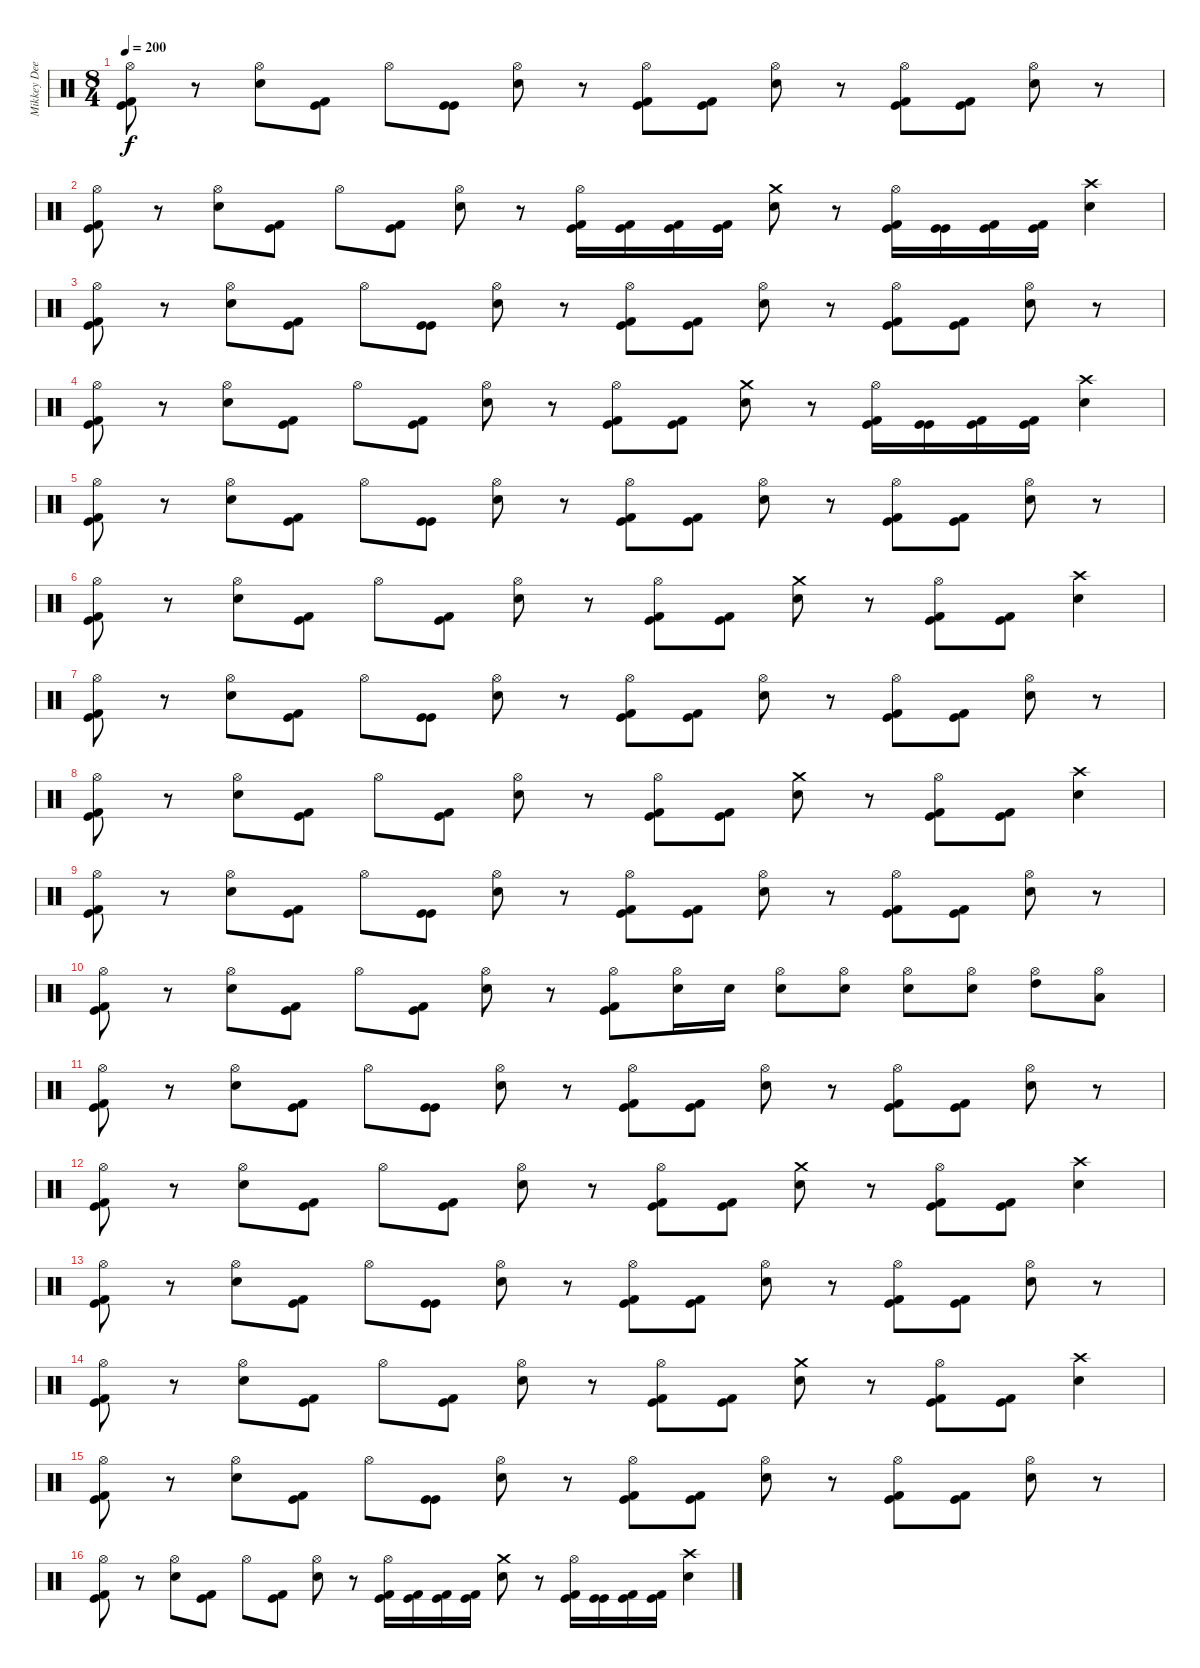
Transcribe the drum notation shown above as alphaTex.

\track ("Mikkey Dee" "Mikkey Dee") {instrument percussion}
\staff {score}
\articulation defaults
\ts (8 4)
\tempo 200
\clef neutral
\ks c
("Hi-Hat (open)" "Kick (hit)" "Kick (hit) 2").8{dy f} r.8 ("Hi-Hat (open)" "Electric Snare (hit)").8 ("Kick (hit)" "Kick (hit) 2").8 "Hi-Hat (open)".8 ("Kick (hit)" "Kick (hit)").8 ("Hi-Hat (open)" "Electric Snare (hit)").8 r.8 ("Hi-Hat (open)" "Kick (hit)" "Kick (hit) 2").8 ("Kick (hit)" "Kick (hit) 2").8 ("Hi-Hat (open)" "Electric Snare (hit)").8 r.8 ("Hi-Hat (open)" "Kick (hit)" "Kick (hit) 2").8 ("Kick (hit)" "Kick (hit) 2").8 ("Hi-Hat (open)" "Electric Snare (hit)").8 r.8 |
("Hi-Hat (open)" "Kick (hit)" "Kick (hit) 2").8 r.8 ("Hi-Hat (open)" "Electric Snare (hit)").8 ("Kick (hit)" "Kick (hit) 2").8 "Hi-Hat (open)".8 ("Kick (hit)" "Kick (hit) 2").8 ("Hi-Hat (open)" "Electric Snare (hit)").8 r.8 ("Hi-Hat (open)" "Kick (hit)" "Kick (hit) 2").16 ("Kick (hit)" "Kick (hit) 2").16 ("Kick (hit)" "Kick (hit) 2").16 ("Kick (hit)" "Kick (hit) 2").16 ("Crash medium (hit)" "Electric Snare (hit)").8 r.8 ("Hi-Hat (open)" "Kick (hit)" "Kick (hit) 2").16 ("Kick (hit)" "Kick (hit)").16 ("Kick (hit)" "Kick (hit) 2").16 ("Kick (hit)" "Kick (hit) 2").16 ("Crash high (hit)" "Electric Snare (hit)").4 |
("Hi-Hat (open)" "Kick (hit)" "Kick (hit) 2").8 r.8 ("Hi-Hat (open)" "Electric Snare (hit)").8 ("Kick (hit)" "Kick (hit) 2").8 "Hi-Hat (open)".8 ("Kick (hit)" "Kick (hit)").8 ("Hi-Hat (open)" "Electric Snare (hit)").8 r.8 ("Hi-Hat (open)" "Kick (hit)" "Kick (hit) 2").8 ("Kick (hit)" "Kick (hit) 2").8 ("Hi-Hat (open)" "Electric Snare (hit)").8 r.8 ("Hi-Hat (open)" "Kick (hit)" "Kick (hit) 2").8 ("Kick (hit)" "Kick (hit) 2").8 ("Hi-Hat (open)" "Electric Snare (hit)").8 r.8 |
("Hi-Hat (open)" "Kick (hit)" "Kick (hit) 2").8 r.8 ("Hi-Hat (open)" "Electric Snare (hit)").8 ("Kick (hit)" "Kick (hit) 2").8 "Hi-Hat (open)".8 ("Kick (hit)" "Kick (hit) 2").8 ("Hi-Hat (open)" "Electric Snare (hit)").8 r.8 ("Hi-Hat (open)" "Kick (hit)" "Kick (hit) 2").8 ("Kick (hit)" "Kick (hit) 2").8 ("Crash medium (hit)" "Electric Snare (hit)").8 r.8 ("Hi-Hat (open)" "Kick (hit)" "Kick (hit) 2").16 ("Kick (hit)" "Kick (hit)").16 ("Kick (hit)" "Kick (hit) 2").16 ("Kick (hit)" "Kick (hit) 2").16 ("Crash high (hit)" "Electric Snare (hit)").4 |
("Hi-Hat (open)" "Kick (hit)" "Kick (hit) 2").8 r.8 ("Hi-Hat (open)" "Electric Snare (hit)").8 ("Kick (hit)" "Kick (hit) 2").8 "Hi-Hat (open)".8 ("Kick (hit)" "Kick (hit)").8 ("Hi-Hat (open)" "Electric Snare (hit)").8 r.8 ("Hi-Hat (open)" "Kick (hit)" "Kick (hit) 2").8 ("Kick (hit)" "Kick (hit) 2").8 ("Hi-Hat (open)" "Electric Snare (hit)").8 r.8 ("Hi-Hat (open)" "Kick (hit)" "Kick (hit) 2").8 ("Kick (hit)" "Kick (hit) 2").8 ("Hi-Hat (open)" "Electric Snare (hit)").8 r.8 |
("Hi-Hat (open)" "Kick (hit)" "Kick (hit) 2").8 r.8 ("Hi-Hat (open)" "Electric Snare (hit)").8 ("Kick (hit)" "Kick (hit) 2").8 "Hi-Hat (open)".8 ("Kick (hit)" "Kick (hit) 2").8 ("Hi-Hat (open)" "Electric Snare (hit)").8 r.8 ("Hi-Hat (open)" "Kick (hit)" "Kick (hit) 2").8 ("Kick (hit)" "Kick (hit) 2").8 ("Crash medium (hit)" "Electric Snare (hit)").8 r.8 ("Hi-Hat (open)" "Kick (hit)" "Kick (hit) 2").8 ("Kick (hit)" "Kick (hit) 2").8 ("Crash high (hit)" "Electric Snare (hit)").4 |
("Hi-Hat (open)" "Kick (hit)" "Kick (hit) 2").8 r.8 ("Hi-Hat (open)" "Electric Snare (hit)").8 ("Kick (hit)" "Kick (hit) 2").8 "Hi-Hat (open)".8 ("Kick (hit)" "Kick (hit)").8 ("Hi-Hat (open)" "Electric Snare (hit)").8 r.8 ("Hi-Hat (open)" "Kick (hit)" "Kick (hit) 2").8 ("Kick (hit)" "Kick (hit) 2").8 ("Hi-Hat (open)" "Electric Snare (hit)").8 r.8 ("Hi-Hat (open)" "Kick (hit)" "Kick (hit) 2").8 ("Kick (hit)" "Kick (hit) 2").8 ("Hi-Hat (open)" "Electric Snare (hit)").8 r.8 |
("Hi-Hat (open)" "Kick (hit)" "Kick (hit) 2").8 r.8 ("Hi-Hat (open)" "Electric Snare (hit)").8 ("Kick (hit)" "Kick (hit) 2").8 "Hi-Hat (open)".8 ("Kick (hit)" "Kick (hit) 2").8 ("Hi-Hat (open)" "Electric Snare (hit)").8 r.8 ("Hi-Hat (open)" "Kick (hit)" "Kick (hit) 2").8 ("Kick (hit)" "Kick (hit) 2").8 ("Crash medium (hit)" "Electric Snare (hit)").8 r.8 ("Hi-Hat (open)" "Kick (hit)" "Kick (hit) 2").8 ("Kick (hit)" "Kick (hit) 2").8 ("Crash high (hit)" "Electric Snare (hit)").4 |
("Hi-Hat (open)" "Kick (hit)" "Kick (hit) 2").8 r.8 ("Hi-Hat (open)" "Electric Snare (hit)").8 ("Kick (hit)" "Kick (hit) 2").8 "Hi-Hat (open)".8 ("Kick (hit)" "Kick (hit)").8 ("Hi-Hat (open)" "Electric Snare (hit)").8 r.8 ("Hi-Hat (open)" "Kick (hit)" "Kick (hit) 2").8 ("Kick (hit)" "Kick (hit) 2").8 ("Hi-Hat (open)" "Electric Snare (hit)").8 r.8 ("Hi-Hat (open)" "Kick (hit)" "Kick (hit) 2").8 ("Kick (hit)" "Kick (hit) 2").8 ("Hi-Hat (open)" "Electric Snare (hit)").8 r.8 |
("Hi-Hat (open)" "Kick (hit)" "Kick (hit) 2").8 r.8 ("Hi-Hat (open)" "Electric Snare (hit)").8 ("Kick (hit)" "Kick (hit) 2").8 "Hi-Hat (open)".8 ("Kick (hit)" "Kick (hit) 2").8 ("Hi-Hat (open)" "Electric Snare (hit)").8 r.8 ("Hi-Hat (open)" "Kick (hit)" "Kick (hit) 2").8 ("Hi-Hat (open)" "Electric Snare (hit)").16 "Electric Snare (hit)".16 ("Hi-Hat (open)" "Electric Snare (hit)").8 ("Hi-Hat (open)" "Electric Snare (hit)").8 ("Hi-Hat (open)" "Electric Snare (hit)").8 ("Hi-Hat (open)" "Electric Snare (hit)").8 ("Hi-Hat (open)" "High Tom (hit)").8 ("Hi-Hat (open)" "Low Tom (hit)").8 |
("Hi-Hat (open)" "Kick (hit)" "Kick (hit) 2").8 r.8 ("Hi-Hat (open)" "Electric Snare (hit)").8 ("Kick (hit)" "Kick (hit) 2").8 "Hi-Hat (open)".8 ("Kick (hit)" "Kick (hit)").8 ("Hi-Hat (open)" "Electric Snare (hit)").8 r.8 ("Hi-Hat (open)" "Kick (hit)" "Kick (hit) 2").8 ("Kick (hit)" "Kick (hit) 2").8 ("Hi-Hat (open)" "Electric Snare (hit)").8 r.8 ("Hi-Hat (open)" "Kick (hit)" "Kick (hit) 2").8 ("Kick (hit)" "Kick (hit) 2").8 ("Hi-Hat (open)" "Electric Snare (hit)").8 r.8 |
("Hi-Hat (open)" "Kick (hit)" "Kick (hit) 2").8 r.8 ("Hi-Hat (open)" "Electric Snare (hit)").8 ("Kick (hit)" "Kick (hit) 2").8 "Hi-Hat (open)".8 ("Kick (hit)" "Kick (hit) 2").8 ("Hi-Hat (open)" "Electric Snare (hit)").8 r.8 ("Hi-Hat (open)" "Kick (hit)" "Kick (hit) 2").8 ("Kick (hit)" "Kick (hit) 2").8 ("Crash medium (hit)" "Electric Snare (hit)").8 r.8 ("Hi-Hat (open)" "Kick (hit)" "Kick (hit) 2").8 ("Kick (hit)" "Kick (hit) 2").8 ("Crash high (hit)" "Electric Snare (hit)").4 |
("Hi-Hat (open)" "Kick (hit)" "Kick (hit) 2").8 r.8 ("Hi-Hat (open)" "Electric Snare (hit)").8 ("Kick (hit)" "Kick (hit) 2").8 "Hi-Hat (open)".8 ("Kick (hit)" "Kick (hit)").8 ("Hi-Hat (open)" "Electric Snare (hit)").8 r.8 ("Hi-Hat (open)" "Kick (hit)" "Kick (hit) 2").8 ("Kick (hit)" "Kick (hit) 2").8 ("Hi-Hat (open)" "Electric Snare (hit)").8 r.8 ("Hi-Hat (open)" "Kick (hit)" "Kick (hit) 2").8 ("Kick (hit)" "Kick (hit) 2").8 ("Hi-Hat (open)" "Electric Snare (hit)").8 r.8 |
("Hi-Hat (open)" "Kick (hit)" "Kick (hit) 2").8 r.8 ("Hi-Hat (open)" "Electric Snare (hit)").8 ("Kick (hit)" "Kick (hit) 2").8 "Hi-Hat (open)".8 ("Kick (hit)" "Kick (hit) 2").8 ("Hi-Hat (open)" "Electric Snare (hit)").8 r.8 ("Hi-Hat (open)" "Kick (hit)" "Kick (hit) 2").8 ("Kick (hit)" "Kick (hit) 2").8 ("Crash medium (hit)" "Electric Snare (hit)").8 r.8 ("Hi-Hat (open)" "Kick (hit)" "Kick (hit) 2").8 ("Kick (hit)" "Kick (hit) 2").8 ("Crash high (hit)" "Electric Snare (hit)").4 |
("Hi-Hat (open)" "Kick (hit)" "Kick (hit) 2").8 r.8 ("Hi-Hat (open)" "Electric Snare (hit)").8 ("Kick (hit)" "Kick (hit) 2").8 "Hi-Hat (open)".8 ("Kick (hit)" "Kick (hit)").8 ("Hi-Hat (open)" "Electric Snare (hit)").8 r.8 ("Hi-Hat (open)" "Kick (hit)" "Kick (hit) 2").8 ("Kick (hit)" "Kick (hit) 2").8 ("Hi-Hat (open)" "Electric Snare (hit)").8 r.8 ("Hi-Hat (open)" "Kick (hit)" "Kick (hit) 2").8 ("Kick (hit)" "Kick (hit) 2").8 ("Hi-Hat (open)" "Electric Snare (hit)").8 r.8 |
("Hi-Hat (open)" "Kick (hit)" "Kick (hit) 2").8 r.8 ("Hi-Hat (open)" "Electric Snare (hit)").8 ("Kick (hit)" "Kick (hit) 2").8 "Hi-Hat (open)".8 ("Kick (hit)" "Kick (hit) 2").8 ("Hi-Hat (open)" "Electric Snare (hit)").8 r.8 ("Hi-Hat (open)" "Kick (hit)" "Kick (hit) 2").16 ("Kick (hit)" "Kick (hit) 2").16 ("Kick (hit)" "Kick (hit) 2").16 ("Kick (hit)" "Kick (hit) 2").16 ("Crash medium (hit)" "Electric Snare (hit)").8 r.8 ("Hi-Hat (open)" "Kick (hit)" "Kick (hit) 2").16 ("Kick (hit)" "Kick (hit)").16 ("Kick (hit)" "Kick (hit) 2").16 ("Kick (hit)" "Kick (hit) 2").16 ("Crash high (hit)" "Electric Snare (hit)").4
